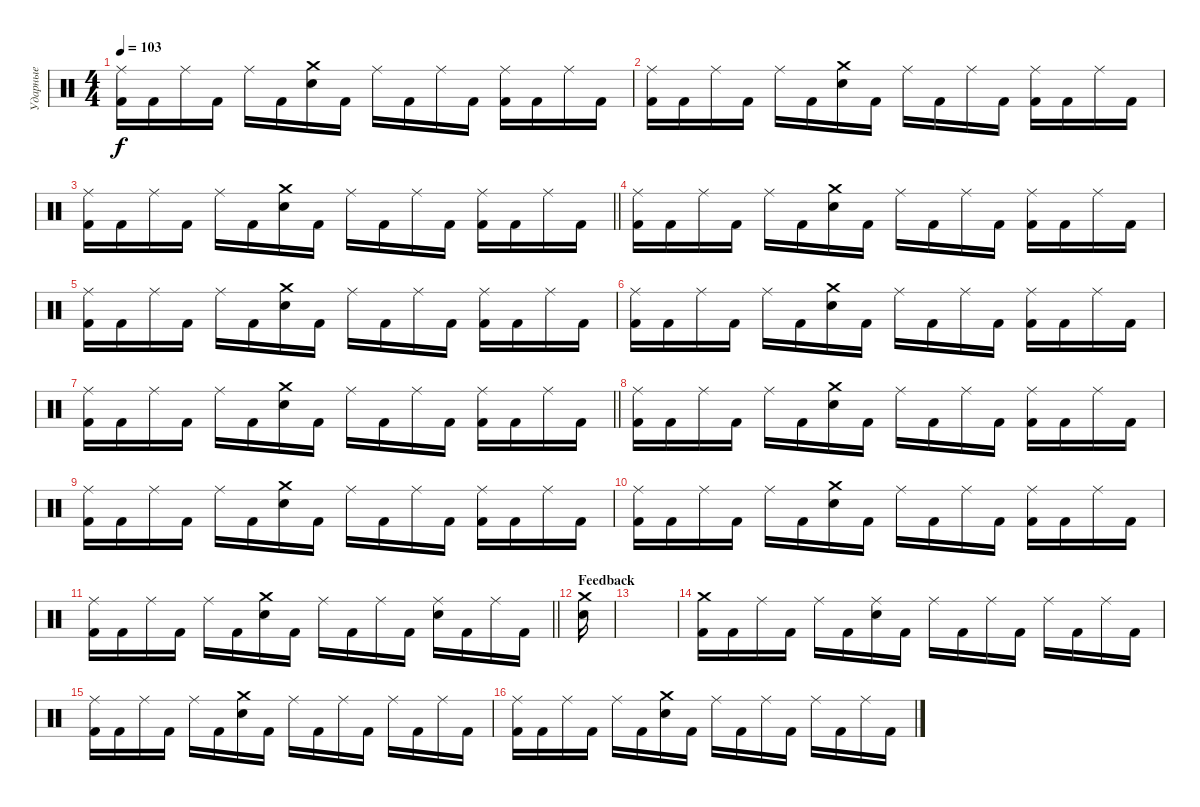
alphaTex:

\track ("Ударные" "Ударные") {instrument percussion}
\staff {score}
\articulation defaults
\ts (4 4)
\tempo 103
\clef neutral
\ks c
("Ride (middle)" "Kick (hit) 2").16{dy f} "Kick (hit) 2".16 "Ride (middle)".16 "Kick (hit) 2".16 "Ride (middle)".16 "Kick (hit) 2".16 ("Crash medium (hit)" "Electric Snare (hit)").16 "Kick (hit) 2".16 "Ride (middle)".16 "Kick (hit) 2".16 "Ride (middle)".16 "Kick (hit) 2".16 ("Ride (middle)" "Kick (hit) 2").16 "Kick (hit) 2".16 "Ride (middle)".16 "Kick (hit) 2".16 |
("Ride (middle)" "Kick (hit) 2").16 "Kick (hit) 2".16 "Ride (middle)".16 "Kick (hit) 2".16 "Ride (middle)".16 "Kick (hit) 2".16 ("Crash medium (hit)" "Electric Snare (hit)").16 "Kick (hit) 2".16 "Ride (middle)".16 "Kick (hit) 2".16 "Ride (middle)".16 "Kick (hit) 2".16 ("Ride (middle)" "Kick (hit) 2").16 "Kick (hit) 2".16 "Ride (middle)".16 "Kick (hit) 2".16 |
\barLineRight lightlight
("Ride (middle)" "Kick (hit) 2").16 "Kick (hit) 2".16 "Ride (middle)".16 "Kick (hit) 2".16 "Ride (middle)".16 "Kick (hit) 2".16 ("Crash medium (hit)" "Electric Snare (hit)").16 "Kick (hit) 2".16 "Ride (middle)".16 "Kick (hit) 2".16 "Ride (middle)".16 "Kick (hit) 2".16 ("Ride (middle)" "Kick (hit) 2").16 "Kick (hit) 2".16 "Ride (middle)".16 "Kick (hit) 2".16 |
("Ride (middle)" "Kick (hit) 2").16 "Kick (hit) 2".16 "Ride (middle)".16 "Kick (hit) 2".16 "Ride (middle)".16 "Kick (hit) 2".16 ("Crash medium (hit)" "Electric Snare (hit)").16 "Kick (hit) 2".16 "Ride (middle)".16 "Kick (hit) 2".16 "Ride (middle)".16 "Kick (hit) 2".16 ("Ride (middle)" "Kick (hit) 2").16 "Kick (hit) 2".16 "Ride (middle)".16 "Kick (hit) 2".16 |
("Ride (middle)" "Kick (hit) 2").16 "Kick (hit) 2".16 "Ride (middle)".16 "Kick (hit) 2".16 "Ride (middle)".16 "Kick (hit) 2".16 ("Crash medium (hit)" "Electric Snare (hit)").16 "Kick (hit) 2".16 "Ride (middle)".16 "Kick (hit) 2".16 "Ride (middle)".16 "Kick (hit) 2".16 ("Ride (middle)" "Kick (hit) 2").16 "Kick (hit) 2".16 "Ride (middle)".16 "Kick (hit) 2".16 |
("Ride (middle)" "Kick (hit) 2").16 "Kick (hit) 2".16 "Ride (middle)".16 "Kick (hit) 2".16 "Ride (middle)".16 "Kick (hit) 2".16 ("Crash medium (hit)" "Electric Snare (hit)").16 "Kick (hit) 2".16 "Ride (middle)".16 "Kick (hit) 2".16 "Ride (middle)".16 "Kick (hit) 2".16 ("Ride (middle)" "Kick (hit) 2").16 "Kick (hit) 2".16 "Ride (middle)".16 "Kick (hit) 2".16 |
\barLineRight lightlight
("Ride (middle)" "Kick (hit) 2").16 "Kick (hit) 2".16 "Ride (middle)".16 "Kick (hit) 2".16 "Ride (middle)".16 "Kick (hit) 2".16 ("Crash medium (hit)" "Electric Snare (hit)").16 "Kick (hit) 2".16 "Ride (middle)".16 "Kick (hit) 2".16 "Ride (middle)".16 "Kick (hit) 2".16 ("Ride (middle)" "Kick (hit) 2").16 "Kick (hit) 2".16 "Ride (middle)".16 "Kick (hit) 2".16 |
("Ride (middle)" "Kick (hit) 2").16 "Kick (hit) 2".16 "Ride (middle)".16 "Kick (hit) 2".16 "Ride (middle)".16 "Kick (hit) 2".16 ("Crash medium (hit)" "Electric Snare (hit)").16 "Kick (hit) 2".16 "Ride (middle)".16 "Kick (hit) 2".16 "Ride (middle)".16 "Kick (hit) 2".16 ("Ride (middle)" "Kick (hit) 2").16 "Kick (hit) 2".16 "Ride (middle)".16 "Kick (hit) 2".16 |
("Ride (middle)" "Kick (hit) 2").16 "Kick (hit) 2".16 "Ride (middle)".16 "Kick (hit) 2".16 "Ride (middle)".16 "Kick (hit) 2".16 ("Crash medium (hit)" "Electric Snare (hit)").16 "Kick (hit) 2".16 "Ride (middle)".16 "Kick (hit) 2".16 "Ride (middle)".16 "Kick (hit) 2".16 ("Ride (middle)" "Kick (hit) 2").16 "Kick (hit) 2".16 "Ride (middle)".16 "Kick (hit) 2".16 |
("Ride (middle)" "Kick (hit) 2").16 "Kick (hit) 2".16 "Ride (middle)".16 "Kick (hit) 2".16 "Ride (middle)".16 "Kick (hit) 2".16 ("Crash medium (hit)" "Electric Snare (hit)").16 "Kick (hit) 2".16 "Ride (middle)".16 "Kick (hit) 2".16 "Ride (middle)".16 "Kick (hit) 2".16 ("Ride (middle)" "Kick (hit) 2").16 "Kick (hit) 2".16 "Ride (middle)".16 "Kick (hit) 2".16 |
\barLineRight lightlight
("Ride (middle)" "Kick (hit) 2").16 "Kick (hit) 2".16 "Ride (middle)".16 "Kick (hit) 2".16 "Ride (middle)".16 "Kick (hit) 2".16 ("Crash medium (hit)" "Electric Snare (hit)").16 "Kick (hit) 2".16 "Ride (middle)".16 "Kick (hit) 2".16 "Ride (middle)".16 "Kick (hit) 2".16 ("Ride (middle)" "Electric Snare (hit)").16 "Kick (hit) 2".16 "Ride (middle)".16 "Kick (hit) 2".16 |
\section ("" "Feedback")
("Crash medium (hit)" "Electric Snare (hit)").16 |
|
("Crash medium (hit)" "Kick (hit) 2").16 "Kick (hit) 2".16 "Ride (middle)".16 "Kick (hit) 2".16 "Ride (middle)".16 "Kick (hit) 2".16 ("Ride (middle)" "Electric Snare (hit)").16 "Kick (hit) 2".16 "Ride (middle)".16 "Kick (hit) 2".16 "Ride (middle)".16 "Kick (hit) 2".16 "Ride (middle)".16 "Kick (hit) 2".16 "Ride (middle)".16 "Kick (hit) 2".16 |
("Ride (middle)" "Kick (hit) 2").16 "Kick (hit) 2".16 "Ride (middle)".16 "Kick (hit) 2".16 "Ride (middle)".16 "Kick (hit) 2".16 ("Crash medium (hit)" "Electric Snare (hit)").16 "Kick (hit) 2".16 "Ride (middle)".16 "Kick (hit) 2".16 "Ride (middle)".16 "Kick (hit) 2".16 "Ride (middle)".16 "Kick (hit) 2".16 "Ride (middle)".16 "Kick (hit) 2".16 |
("Ride (middle)" "Kick (hit) 2").16 "Kick (hit) 2".16 "Ride (middle)".16 "Kick (hit) 2".16 "Ride (middle)".16 "Kick (hit) 2".16 ("Crash medium (hit)" "Electric Snare (hit)").16 "Kick (hit) 2".16 "Ride (middle)".16 "Kick (hit) 2".16 "Ride (middle)".16 "Kick (hit) 2".16 "Ride (middle)".16 "Kick (hit) 2".16 "Ride (middle)".16 "Kick (hit) 2".16
